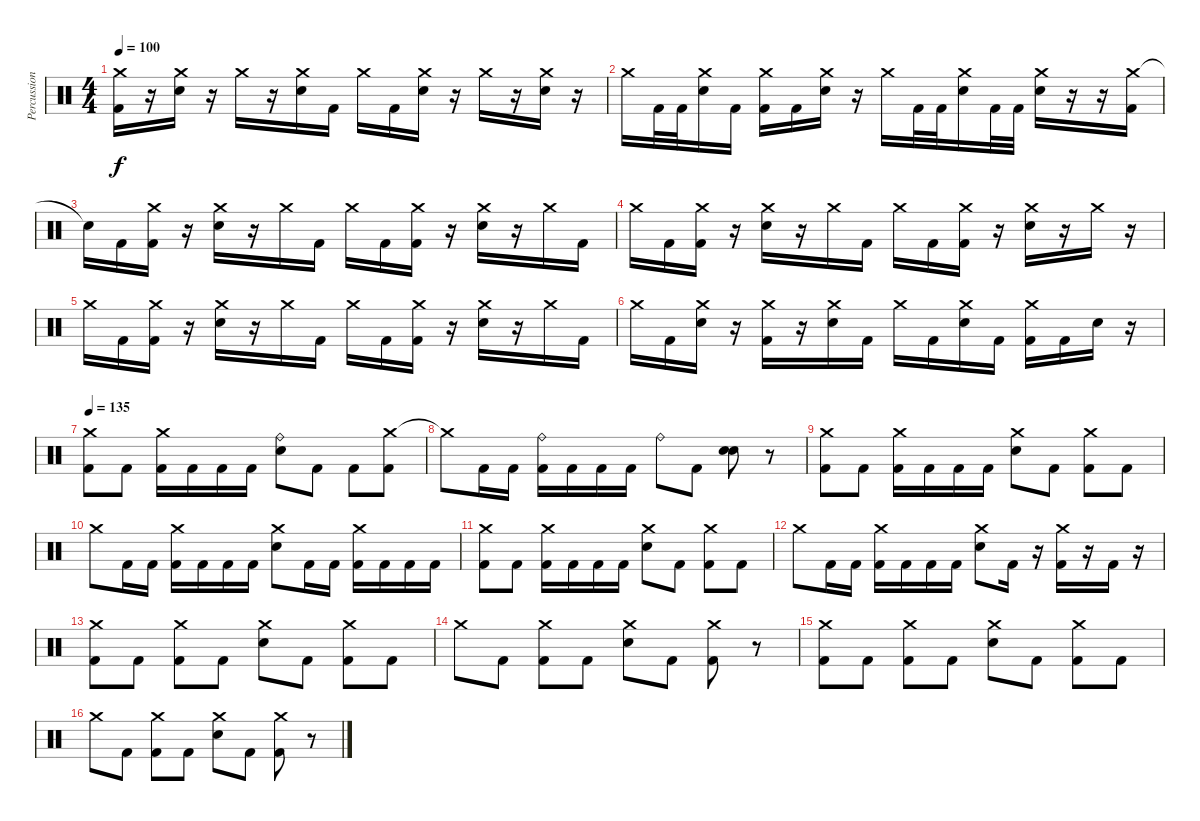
\track ("Percussion" "Percussion") {instrument percussion}
\staff {score}
\articulation defaults
\ts (4 4)
\tempo 100
\clef neutral
\ks c
("Crash medium (hit)" "Kick (hit) 2").16{dy f} r.16 ("Crash medium (hit)" "Electric Snare (hit)").16 r.16 "Crash medium (hit)".16 r.16 ("Crash medium (hit)" "Electric Snare (hit)").16 "Kick (hit) 2".16 "Crash medium (hit)".16 "Kick (hit) 2".16 ("Crash medium (hit)" "Electric Snare (hit)").16 r.16 "Crash medium (hit)".16 r.16 ("Crash medium (hit)" "Electric Snare (hit)").16 r.16 |
"Crash medium (hit)".16 "Kick (hit) 2".32 "Kick (hit) 2".32 ("Crash medium (hit)" "Electric Snare (hit)").16 "Kick (hit) 2".16 ("Crash medium (hit)" "Kick (hit) 2").16 "Kick (hit) 2".16 ("Crash medium (hit)" "Electric Snare (hit)").16 r.16 "Crash medium (hit)".16 "Kick (hit) 2".32 "Kick (hit) 2".32 ("Crash medium (hit)" "Electric Snare (hit)").16 "Kick (hit) 2".32 "Kick (hit) 2".32 ("Crash medium (hit)" "Electric Snare (hit)").16 r.16 r.16 ("Crash medium (hit)" "Kick (hit) 2").16 |
"Snare (hit)"{t}.16 "Kick (hit) 2".16 ("Crash medium (hit)" "Kick (hit) 2").16 r.16 ("Crash medium (hit)" "Electric Snare (hit)").16 r.16 "Crash medium (hit)".16 "Kick (hit) 2".16 "Crash medium (hit)".16 "Kick (hit) 2".16 ("Crash medium (hit)" "Kick (hit) 2").16 r.16 ("Crash medium (hit)" "Electric Snare (hit)").16 r.16 "Crash medium (hit)".16 "Kick (hit) 2".16 |
"Crash medium (hit)".16 "Kick (hit) 2".16 ("Crash medium (hit)" "Kick (hit) 2").16 r.16 ("Crash medium (hit)" "Electric Snare (hit)").16 r.16 "Crash medium (hit)".16 "Kick (hit) 2".16 "Crash medium (hit)".16 "Kick (hit) 2".16 ("Crash medium (hit)" "Kick (hit) 2").16 r.16 ("Crash medium (hit)" "Electric Snare (hit)").16 r.16 "Crash medium (hit)".16 r.16 |
"Crash medium (hit)".16 "Kick (hit) 2".16 ("Crash medium (hit)" "Kick (hit) 2").16 r.16 ("Crash medium (hit)" "Electric Snare (hit)").16 r.16 "Crash medium (hit)".16 "Kick (hit) 2".16 "Crash medium (hit)".16 "Kick (hit) 2".16 ("Crash medium (hit)" "Kick (hit) 2").16 r.16 ("Crash medium (hit)" "Electric Snare (hit)").16 r.16 "Crash medium (hit)".16 "Kick (hit) 2".16 |
"Crash medium (hit)".16 "Kick (hit) 2".16 ("Crash medium (hit)" "Electric Snare (hit)").16 r.16 ("Crash medium (hit)" "Kick (hit) 2").16 r.16 ("Crash medium (hit)" "Electric Snare (hit)").16 "Kick (hit) 2".16 "Crash medium (hit)".16 "Kick (hit) 2".16 ("Crash medium (hit)" "Electric Snare (hit)").16 "Kick (hit) 2".16 ("Crash medium (hit)" "Kick (hit) 2").16 "Kick (hit) 2".16 "Electric Snare (hit)".16 r.16 |
\tempo 135
("Crash medium (hit)" "Kick (hit) 2").8 "Kick (hit) 2".8 ("Crash medium (hit)" "Kick (hit) 2").16 "Kick (hit) 2".16 "Kick (hit) 2".16 "Kick (hit) 2".16 ("Ride (bell)" "Electric Snare (hit)").8 "Kick (hit) 2".8 "Kick (hit) 2".8 ("Crash medium (hit)" "Kick (hit) 2").8 |
"Crash medium (hit)"{t}.8 "Kick (hit) 2".16 "Kick (hit) 2".16 ("Ride (bell)" "Kick (hit) 2").16 "Kick (hit) 2".16 "Kick (hit) 2".16 "Kick (hit) 2".16 "Ride (bell)".8 "Kick (hit) 2".8 ("Electric Snare (hit)" "Electric Snare (hit)").8{bu 60} r.8 |
("Crash medium (hit)" "Kick (hit) 2").8 "Kick (hit) 2".8 ("Crash medium (hit)" "Kick (hit) 2").16 "Kick (hit) 2".16 "Kick (hit) 2".16 "Kick (hit) 2".16 ("Crash medium (hit)" "Electric Snare (hit)").8 "Kick (hit) 2".8 ("Crash medium (hit)" "Kick (hit) 2").8 "Kick (hit) 2".8 |
"Crash medium (hit)".8 "Kick (hit) 2".16 "Kick (hit) 2".16 ("Crash medium (hit)" "Kick (hit) 2").16 "Kick (hit) 2".16 "Kick (hit) 2".16 "Kick (hit) 2".16 ("Crash medium (hit)" "Electric Snare (hit)").8 "Kick (hit) 2".16 "Kick (hit) 2".16 ("Crash medium (hit)" "Kick (hit) 2").16 "Kick (hit) 2".16 "Kick (hit) 2".16 "Kick (hit) 2".16 |
("Crash medium (hit)" "Kick (hit) 2").8 "Kick (hit) 2".8 ("Crash medium (hit)" "Kick (hit) 2").16 "Kick (hit) 2".16 "Kick (hit) 2".16 "Kick (hit) 2".16 ("Crash medium (hit)" "Electric Snare (hit)").8 "Kick (hit) 2".8 ("Crash medium (hit)" "Kick (hit) 2").8 "Kick (hit) 2".8 |
"Crash medium (hit)".8 "Kick (hit) 2".16 "Kick (hit) 2".16 ("Crash medium (hit)" "Kick (hit) 2").16 "Kick (hit) 2".16 "Kick (hit) 2".16 "Kick (hit) 2".16 ("Crash medium (hit)" "Electric Snare (hit)").8 "Kick (hit) 2".16 r.16 ("Crash medium (hit)" "Kick (hit) 2").16 r.16 "Kick (hit) 2".16 r.16 |
("Crash medium (hit)" "Kick (hit) 2").8 "Kick (hit) 2".8 ("Crash medium (hit)" "Kick (hit) 2").8 "Kick (hit) 2".8 ("Crash medium (hit)" "Electric Snare (hit)").8 "Kick (hit) 2".8 ("Crash medium (hit)" "Kick (hit) 2").8 "Kick (hit) 2".8 |
"Crash medium (hit)".8 "Kick (hit) 2".8 ("Crash medium (hit)" "Kick (hit) 2").8 "Kick (hit) 2".8 ("Crash medium (hit)" "Electric Snare (hit)").8 "Kick (hit) 2".8 ("Crash medium (hit)" "Kick (hit) 2").8 r.8 |
("Crash medium (hit)" "Kick (hit) 2").8 "Kick (hit) 2".8 ("Crash medium (hit)" "Kick (hit) 2").8 "Kick (hit) 2".8 ("Crash medium (hit)" "Electric Snare (hit)").8 "Kick (hit) 2".8 ("Crash medium (hit)" "Kick (hit) 2").8 "Kick (hit) 2".8 |
"Crash medium (hit)".8 "Kick (hit) 2".8 ("Crash medium (hit)" "Kick (hit) 2").8 "Kick (hit) 2".8 ("Crash medium (hit)" "Electric Snare (hit)").8 "Kick (hit) 2".8 ("Crash medium (hit)" "Kick (hit) 2").8 r.8
